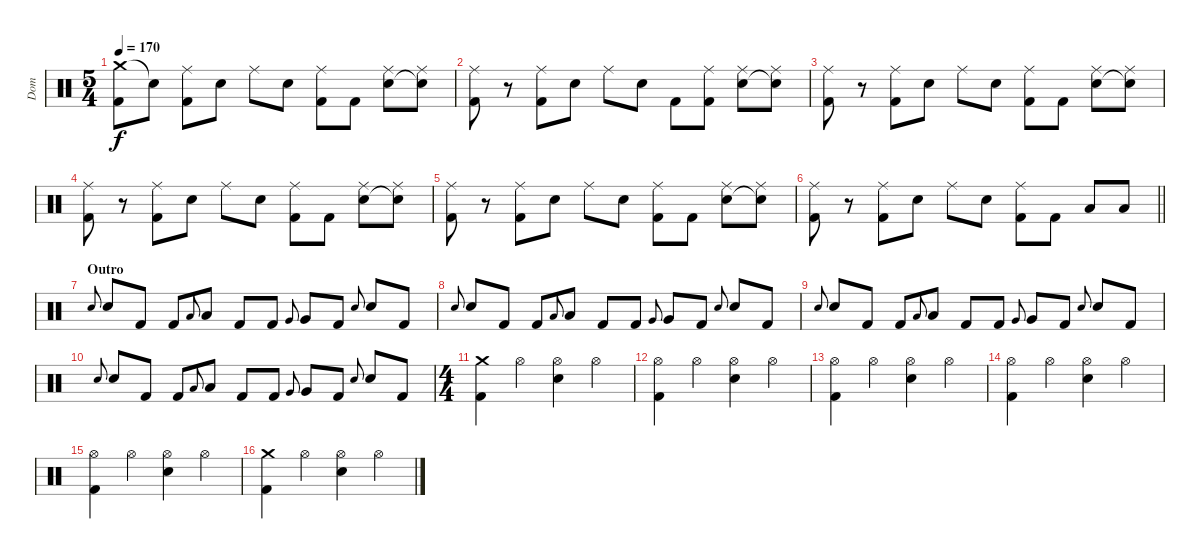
\track ("Dom" "Dom") {instrument percussion}
\staff {score}
\articulation defaults
\ts (5 4)
\tempo 170
\clef neutral
\ks c
("Crash medium (hit)" "Kick (hit) 2").8{dy f} "Snare (hit)"{t}.8 ("Ride (middle)" "Kick (hit) 2").8 "Electric Snare (hit)".8 "Ride (middle)".8 "Electric Snare (hit)".8 ("Ride (middle)" "Kick (hit) 2").8 "Kick (hit) 2".8 ("Ride (middle)" "Electric Snare (hit)").8 ("Ride (middle)" "Snare (hit)"{t}).8 |
("Ride (middle)" "Kick (hit) 2").8 r.8 ("Ride (middle)" "Kick (hit) 2").8 "Electric Snare (hit)".8 "Ride (middle)".8 "Electric Snare (hit)".8 "Kick (hit) 2".8 ("Ride (middle)" "Kick (hit) 2").8 ("Ride (middle)" "Electric Snare (hit)").8 ("Ride (middle)" "Snare (hit)"{t}).8 |
("Ride (middle)" "Kick (hit) 2").8 r.8 ("Ride (middle)" "Kick (hit) 2").8 "Electric Snare (hit)".8 "Ride (middle)".8 "Electric Snare (hit)".8 ("Ride (middle)" "Kick (hit) 2").8 "Kick (hit) 2".8 ("Ride (middle)" "Electric Snare (hit)").8 ("Ride (middle)" "Snare (hit)"{t}).8 |
("Ride (middle)" "Kick (hit) 2").8 r.8 ("Ride (middle)" "Kick (hit) 2").8 "Electric Snare (hit)".8 "Ride (middle)".8 "Electric Snare (hit)".8 ("Ride (middle)" "Kick (hit) 2").8 "Kick (hit) 2".8 ("Ride (middle)" "Electric Snare (hit)").8 ("Ride (middle)" "Snare (hit)"{t}).8 |
("Ride (middle)" "Kick (hit) 2").8 r.8 ("Ride (middle)" "Kick (hit) 2").8 "Electric Snare (hit)".8 "Ride (middle)".8 "Electric Snare (hit)".8 ("Ride (middle)" "Kick (hit) 2").8 "Kick (hit) 2".8 ("Ride (middle)" "Electric Snare (hit)").8 ("Ride (middle)" "Snare (hit)"{t}).8 |
\barLineRight lightlight
("Ride (middle)" "Kick (hit) 2").8 r.8 ("Ride (middle)" "Kick (hit) 2").8 "Electric Snare (hit)".8 "Ride (middle)".8 "Electric Snare (hit)".8 ("Ride (middle)" "Kick (hit) 2").8 "Kick (hit) 2".8 "Low Tom (hit)".8 "Low Tom (hit)".8 |
\section ("" "Outro")
"Electric Snare (hit)".8{gr onbeat} "Electric Snare (hit)".8 "Kick (hit) 2".8 "Kick (hit) 2".8 "Low Tom (hit)".8{gr onbeat} "Low Tom (hit)".8 "Kick (hit) 2".8 "Kick (hit) 2".8 "Very Low Tom (hit)".8{gr onbeat} "Very Low Tom (hit)".8 "Kick (hit) 2".8 "Electric Snare (hit)".8{gr onbeat} "Electric Snare (hit)".8 "Kick (hit) 2".8 |
"Electric Snare (hit)".8{gr onbeat} "Electric Snare (hit)".8 "Kick (hit) 2".8 "Kick (hit) 2".8 "Low Tom (hit)".8{gr onbeat} "Low Tom (hit)".8 "Kick (hit) 2".8 "Kick (hit) 2".8 "Very Low Tom (hit)".8{gr onbeat} "Very Low Tom (hit)".8 "Kick (hit) 2".8 "Electric Snare (hit)".8{gr onbeat} "Electric Snare (hit)".8 "Kick (hit) 2".8 |
"Electric Snare (hit)".8{gr onbeat} "Electric Snare (hit)".8 "Kick (hit) 2".8 "Kick (hit) 2".8 "Low Tom (hit)".8{gr onbeat} "Low Tom (hit)".8 "Kick (hit) 2".8 "Kick (hit) 2".8 "Very Low Tom (hit)".8{gr onbeat} "Very Low Tom (hit)".8 "Kick (hit) 2".8 "Electric Snare (hit)".8{gr onbeat} "Electric Snare (hit)".8 "Kick (hit) 2".8 |
"Electric Snare (hit)".8{gr onbeat} "Electric Snare (hit)".8 "Kick (hit) 2".8 "Kick (hit) 2".8 "Low Tom (hit)".8{gr onbeat} "Low Tom (hit)".8 "Kick (hit) 2".8 "Kick (hit) 2".8 "Very Low Tom (hit)".8{gr onbeat} "Very Low Tom (hit)".8 "Kick (hit) 2".8 "Electric Snare (hit)".8{gr onbeat} "Electric Snare (hit)".8 "Kick (hit) 2".8 |
\ts (4 4)
("Crash medium (hit)" "Kick (hit) 2").4 "Hi-Hat (open)".4 ("Hi-Hat (open)" "Electric Snare (hit)").4 "Hi-Hat (open)".4 |
("Hi-Hat (open)" "Kick (hit) 2").4 "Hi-Hat (open)".4 ("Hi-Hat (open)" "Electric Snare (hit)").4 "Hi-Hat (open)".4 |
("Hi-Hat (open)" "Kick (hit) 2").4 "Hi-Hat (open)".4 ("Hi-Hat (open)" "Electric Snare (hit)").4 "Hi-Hat (open)".4 |
("Hi-Hat (open)" "Kick (hit) 2").4 "Hi-Hat (open)".4 ("Hi-Hat (open)" "Electric Snare (hit)").4 "Hi-Hat (open)".4 |
("Hi-Hat (open)" "Kick (hit) 2").4 "Hi-Hat (open)".4 ("Hi-Hat (open)" "Electric Snare (hit)").4 "Hi-Hat (open)".4 |
("Crash medium (hit)" "Kick (hit) 2").4 "Hi-Hat (open)".4 ("Hi-Hat (open)" "Electric Snare (hit)").4 "Hi-Hat (open)".4
